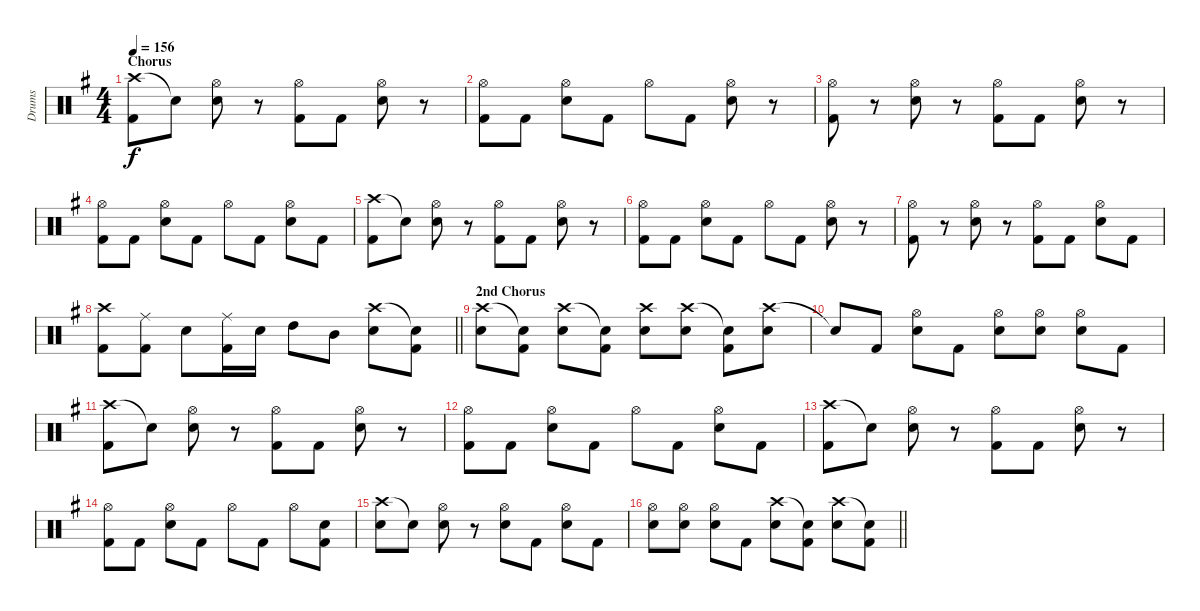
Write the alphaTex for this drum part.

\track ("Drums" "Drums") {instrument percussion}
\staff {score}
\articulation defaults
\ts (4 4)
\section ("" "Chorus")
\tempo 156
\clef neutral
\ks g
("Crash high (hit)" "Kick (hit) 2").8{dy f} "Snare (hit)"{t}.8 ("Hi-Hat (open)" "Snare (hit) 2").8 r.8 ("Hi-Hat (open)" "Kick (hit) 2").8 "Kick (hit) 2".8 ("Hi-Hat (open)" "Snare (hit) 2").8 r.8 |
("Hi-Hat (open)" "Kick (hit) 2").8 "Kick (hit) 2".8 ("Hi-Hat (open)" "Snare (hit) 2").8 "Kick (hit) 2".8 "Hi-Hat (open)".8 "Kick (hit) 2".8 ("Hi-Hat (open)" "Snare (hit) 2").8 r.8 |
("Hi-Hat (open)" "Kick (hit) 2").8 r.8 ("Hi-Hat (open)" "Snare (hit) 2").8 r.8 ("Hi-Hat (open)" "Kick (hit) 2").8 "Kick (hit) 2".8 ("Hi-Hat (open)" "Snare (hit) 2").8 r.8 |
("Hi-Hat (open)" "Kick (hit) 2").8 "Kick (hit) 2".8 ("Hi-Hat (open)" "Snare (hit) 2").8 "Kick (hit) 2".8 "Hi-Hat (open)".8 "Kick (hit) 2".8 ("Hi-Hat (open)" "Snare (hit) 2").8 "Kick (hit) 2".8 |
("Crash high (hit)" "Kick (hit) 2").8 "Snare (hit)"{t}.8 ("Hi-Hat (open)" "Snare (hit) 2").8 r.8 ("Hi-Hat (open)" "Kick (hit) 2").8 "Kick (hit) 2".8 ("Hi-Hat (open)" "Snare (hit) 2").8 r.8 |
("Hi-Hat (open)" "Kick (hit) 2").8 "Kick (hit) 2".8 ("Hi-Hat (open)" "Snare (hit) 2").8 "Kick (hit) 2".8 "Hi-Hat (open)".8 "Kick (hit) 2".8 ("Hi-Hat (open)" "Snare (hit) 2").8 r.8 |
("Hi-Hat (open)" "Kick (hit) 2").8 r.8 ("Hi-Hat (open)" "Snare (hit) 2").8 r.8 ("Hi-Hat (open)" "Kick (hit) 2").8 "Kick (hit) 2".8 ("Hi-Hat (open)" "Snare (hit) 2").8 "Kick (hit) 2".8 |
\barLineRight lightlight
("Crash high (hit)" "Kick (hit) 2").8 ("Ride (middle)" "Kick (hit) 2").8 "Snare (hit) 2".8 ("Ride (middle)" "Kick (hit) 2").16 "Snare (hit) 2".16 "High Tom (hit)".8 "Mid Tom (hit)".8 ("Crash high (hit)" "Snare (hit) 2").8 ("Snare (hit)"{t} "Kick (hit) 2").8 |
\section ("" "2nd Chorus")
("Crash high (hit)" "Snare (hit) 2").8 ("Snare (hit)"{t} "Kick (hit) 2").8 ("Crash high (hit)" "Snare (hit) 2").8 ("Snare (hit)"{t} "Kick (hit) 2").8 ("Crash high (hit)" "Snare (hit) 2").8 ("Crash high (hit)" "Snare (hit) 2").8 ("Snare (hit)"{t} "Kick (hit) 2").8 ("Crash high (hit)" "Snare (hit) 2").8 |
"Snare (hit)"{t}.8 "Kick (hit) 2".8 ("Hi-Hat (open)" "Snare (hit) 2").8 "Kick (hit) 2".8 ("Hi-Hat (open)" "Snare (hit) 2").8 ("Hi-Hat (open)" "Snare (hit) 2").8 ("Hi-Hat (open)" "Snare (hit) 2").8 "Kick (hit) 2".8 |
("Crash high (hit)" "Kick (hit) 2").8 "Snare (hit)"{t}.8 ("Hi-Hat (open)" "Snare (hit) 2").8 r.8 ("Hi-Hat (open)" "Kick (hit) 2").8 "Kick (hit) 2".8 ("Hi-Hat (open)" "Snare (hit) 2").8 r.8 |
("Hi-Hat (open)" "Kick (hit) 2").8 "Kick (hit) 2".8 ("Hi-Hat (open)" "Snare (hit) 2").8 "Kick (hit) 2".8 "Hi-Hat (open)".8 "Kick (hit) 2".8 ("Hi-Hat (open)" "Snare (hit) 2").8 "Kick (hit) 2".8 |
("Crash high (hit)" "Kick (hit) 2").8 "Snare (hit)"{t}.8 ("Hi-Hat (open)" "Snare (hit) 2").8 r.8 ("Hi-Hat (open)" "Kick (hit) 2").8 "Kick (hit) 2".8 ("Hi-Hat (open)" "Snare (hit) 2").8 r.8 |
("Hi-Hat (open)" "Kick (hit) 2").8 "Kick (hit) 2".8 ("Hi-Hat (open)" "Snare (hit) 2").8 "Kick (hit) 2".8 "Hi-Hat (open)".8 "Kick (hit) 2".8 "Hi-Hat (open)".8 ("Snare (hit) 2" "Kick (hit) 2").8 |
("Crash high (hit)" "Snare (hit) 2").8 "Snare (hit)"{t}.8 ("Hi-Hat (open)" "Snare (hit) 2").8 r.8 ("Hi-Hat (open)" "Snare (hit) 2").8 "Kick (hit) 2".8 ("Hi-Hat (open)" "Snare (hit) 2").8 "Kick (hit) 2".8 |
\barLineRight lightlight
("Hi-Hat (open)" "Snare (hit) 2").8 ("Hi-Hat (open)" "Snare (hit) 2").8 ("Hi-Hat (open)" "Snare (hit) 2").8 "Kick (hit) 2".8 ("Crash high (hit)" "Snare (hit) 2").8 ("Snare (hit)"{t} "Kick (hit) 2").8 ("Crash high (hit)" "Snare (hit) 2").8 ("Snare (hit)"{t} "Kick (hit) 2").8
